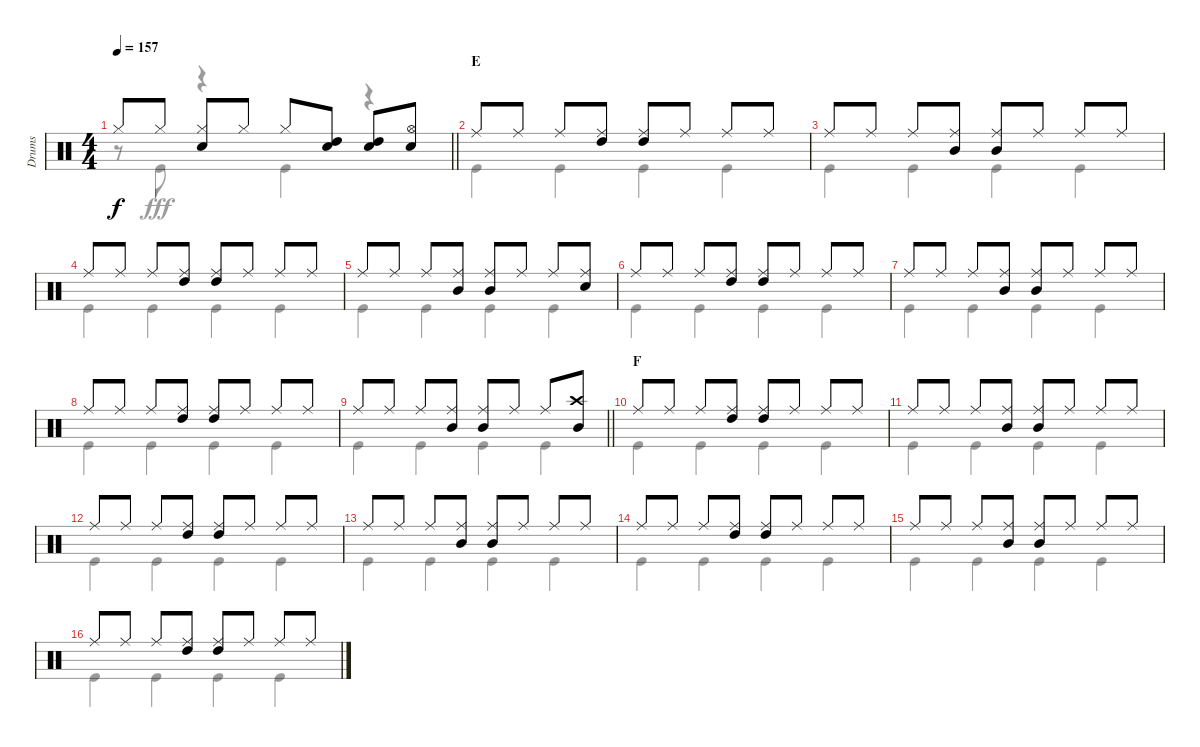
\track ("Drums" "Drums") {instrument percussion}
\staff {score}
\articulation defaults
\voice
\ts (4 4)
\tempo 157
\clef neutral
\barLineRight lightlight
\ks c "Hi-Hat (closed)".8{dy f} "Hi-Hat (closed)".8
("Hi-Hat (closed)" "Snare (hit) 2").8 "Hi-Hat (closed)".8 "Hi-Hat (closed)".8 ("High Tom (hit)" "Snare (hit) 2").8 ("High Tom (hit)" "Snare (hit) 2").8 ("Hi-Hat (open)" "Snare (hit) 2").8 |
\section ("" "E")
"Ride (middle)".8 "Ride (middle)".8 "Ride (middle)".8 ("Ride (middle)" "High Tom (hit)").8 ("Ride (middle)" "High Tom (hit)").8 "Ride (middle)".8 "Ride (middle)".8 "Ride (middle)".8 |
"Ride (middle)".8 "Ride (middle)".8 "Ride (middle)".8 ("Ride (middle)" "Mid Tom (hit)").8 ("Ride (middle)" "Mid Tom (hit)").8 "Ride (middle)".8 "Ride (middle)".8 "Ride (middle)".8 |
"Ride (middle)".8 "Ride (middle)".8 "Ride (middle)".8 ("Ride (middle)" "High Tom (hit)").8 ("Ride (middle)" "High Tom (hit)").8 "Ride (middle)".8 "Ride (middle)".8 "Ride (middle)".8 |
"Ride (middle)".8 "Ride (middle)".8 "Ride (middle)".8 ("Ride (middle)" "Mid Tom (hit)").8 ("Ride (middle)" "Mid Tom (hit)").8 "Ride (middle)".8 "Ride (middle)".8 ("Ride (middle)" "Snare (hit) 2").8 |
"Ride (middle)".8 "Ride (middle)".8 "Ride (middle)".8 ("Ride (middle)" "High Tom (hit)").8 ("Ride (middle)" "High Tom (hit)").8 "Ride (middle)".8 "Ride (middle)".8 "Ride (middle)".8 |
"Ride (middle)".8 "Ride (middle)".8 "Ride (middle)".8 ("Ride (middle)" "Mid Tom (hit)").8 ("Ride (middle)" "Mid Tom (hit)").8 "Ride (middle)".8 "Ride (middle)".8 "Ride (middle)".8 |
"Ride (middle)".8 "Ride (middle)".8 "Ride (middle)".8 ("Ride (middle)" "High Tom (hit)").8 ("Ride (middle)" "High Tom (hit)").8 "Ride (middle)".8 "Ride (middle)".8 "Ride (middle)".8 |
\barLineRight lightlight "Ride (middle)".8 "Ride (middle)".8 "Ride (middle)".8
("Ride (middle)" "Mid Tom (hit)").8 ("Ride (middle)" "Mid Tom (hit)").8 "Ride (middle)".8 "Ride (middle)".8 ("Crash high (hit)" "Mid Tom (hit)").8 |
\section ("" "F")
"Ride (middle)".8 "Ride (middle)".8 "Ride (middle)".8 ("Ride (middle)" "High Tom (hit)").8 ("Ride (middle)" "High Tom (hit)").8 "Ride (middle)".8 "Ride (middle)".8 "Ride (middle)".8 |
"Ride (middle)".8 "Ride (middle)".8 "Ride (middle)".8 ("Ride (middle)" "Mid Tom (hit)").8 ("Ride (middle)" "Mid Tom (hit)").8 "Ride (middle)".8 "Ride (middle)".8 "Ride (middle)".8 |
"Ride (middle)".8 "Ride (middle)".8 "Ride (middle)".8 ("Ride (middle)" "High Tom (hit)").8 ("Ride (middle)" "High Tom (hit)").8 "Ride (middle)".8 "Ride (middle)".8 "Ride (middle)".8 |
"Ride (middle)".8 "Ride (middle)".8 "Ride (middle)".8 ("Ride (middle)" "Mid Tom (hit)").8 ("Ride (middle)" "Mid Tom (hit)").8 "Ride (middle)".8 "Ride (middle)".8 "Ride (middle)".8 |
"Ride (middle)".8 "Ride (middle)".8 "Ride (middle)".8 ("Ride (middle)" "High Tom (hit)").8 ("Ride (middle)" "High Tom (hit)").8 "Ride (middle)".8 "Ride (middle)".8 "Ride (middle)".8 |
"Ride (middle)".8 "Ride (middle)".8 "Ride (middle)".8 ("Ride (middle)" "Mid Tom (hit)").8 ("Ride (middle)" "Mid Tom (hit)").8 "Ride (middle)".8 "Ride (middle)".8 "Ride (middle)".8 |
"Ride (middle)".8 "Ride (middle)".8 "Ride (middle)".8 ("Ride (middle)" "High Tom (hit)").8 ("Ride (middle)" "High Tom (hit)").8 "Ride (middle)".8 "Ride (middle)".8 "Ride (middle)".8
\voice
\clef neutral
\ottava regular
\simile none
\barLineRight lightlight
\ks c
r.8{dy fff} "Kick (hit)".8 r.4 "Kick (hit)".4 r.4 |
"Kick (hit)".4 "Kick (hit)".4 "Kick (hit)".4 "Kick (hit)".4 |
"Kick (hit)".4 "Kick (hit)".4 "Kick (hit)".4 "Kick (hit)".4 |
"Kick (hit)".4 "Kick (hit)".4 "Kick (hit)".4 "Kick (hit)".4 |
"Kick (hit)".4 "Kick (hit)".4 "Kick (hit)".4 "Kick (hit)".4 |
"Kick (hit)".4 "Kick (hit)".4 "Kick (hit)".4 "Kick (hit)".4 |
"Kick (hit)".4 "Kick (hit)".4 "Kick (hit)".4 "Kick (hit)".4 |
"Kick (hit)".4 "Kick (hit)".4 "Kick (hit)".4 "Kick (hit)".4 |
\barLineRight lightlight "Kick (hit)".4 "Kick (hit)".4 "Kick (hit)".4 "Kick (hit)".4
|
"Kick (hit)".4 "Kick (hit)".4 "Kick (hit)".4 "Kick (hit)".4 |
"Kick (hit)".4 "Kick (hit)".4 "Kick (hit)".4 "Kick (hit)".4 |
"Kick (hit)".4 "Kick (hit)".4 "Kick (hit)".4 "Kick (hit)".4 |
"Kick (hit)".4 "Kick (hit)".4 "Kick (hit)".4 "Kick (hit)".4 |
"Kick (hit)".4 "Kick (hit)".4 "Kick (hit)".4 "Kick (hit)".4 |
"Kick (hit)".4 "Kick (hit)".4 "Kick (hit)".4 "Kick (hit)".4 |
"Kick (hit)".4 "Kick (hit)".4 "Kick (hit)".4 "Kick (hit)".4
